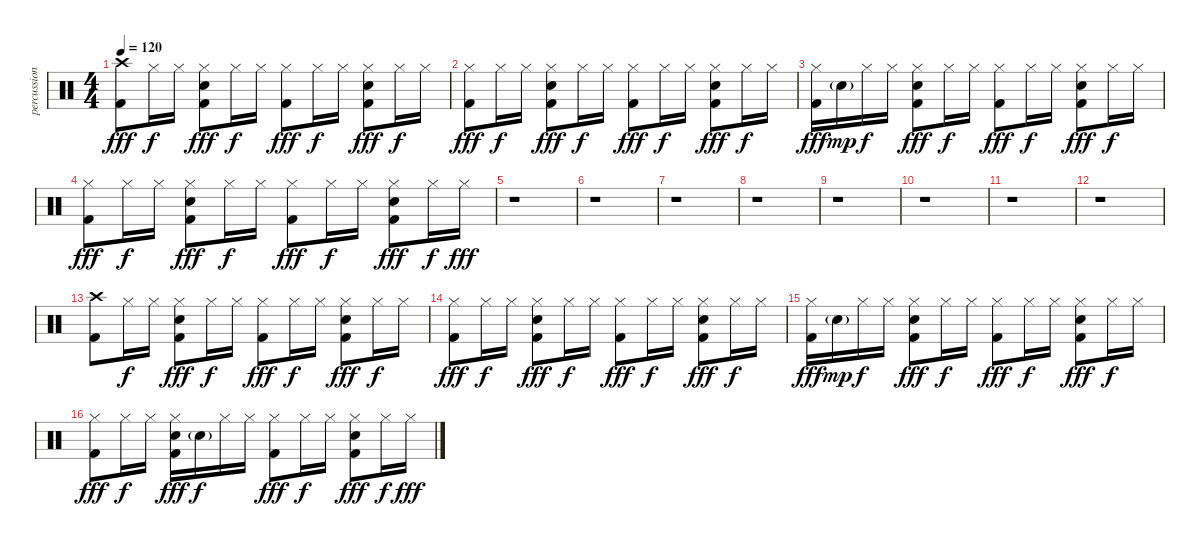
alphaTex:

\track ("percussion" "percussion") {instrument percussion}
\staff {score}
\articulation defaults
\ts (4 4)
\tempo 120
\clef neutral
\ks c
("Crash high (hit)" "Kick (hit) 2").8{dy fff} "Hi-Hat (closed)".16{dy f} "Hi-Hat (closed)".16 ("Snare (hit) 2" "Hi-Hat (closed)" "Kick (hit) 2").8{dy fff} "Hi-Hat (closed)".16{dy f} "Hi-Hat (closed)".16 ("Hi-Hat (closed)" "Kick (hit) 2").8{dy fff} "Hi-Hat (closed)".16{dy f} "Hi-Hat (closed)".16 ("Snare (hit) 2" "Hi-Hat (closed)" "Kick (hit) 2").8{dy fff} "Hi-Hat (closed)".16{dy f} "Hi-Hat (closed)".16 |
("Hi-Hat (closed)" "Kick (hit) 2").8{dy fff} "Hi-Hat (closed)".16{dy f} "Hi-Hat (closed)".16 ("Snare (hit) 2" "Hi-Hat (closed)" "Kick (hit) 2").8{dy fff} "Hi-Hat (closed)".16{dy f} "Hi-Hat (closed)".16 ("Hi-Hat (closed)" "Kick (hit) 2").8{dy fff} "Hi-Hat (closed)".16{dy f} "Hi-Hat (closed)".16 ("Snare (hit) 2" "Hi-Hat (closed)" "Kick (hit) 2").8{dy fff} "Hi-Hat (closed)".16{dy f} "Hi-Hat (closed)".16 |
("Hi-Hat (closed)" "Kick (hit) 2").16{dy fff} "Electric Snare (hit)"{g}.16{dy mp} "Hi-Hat (closed)".16{dy f} "Hi-Hat (closed)".16 ("Snare (hit) 2" "Hi-Hat (closed)" "Kick (hit) 2").8{dy fff} "Hi-Hat (closed)".16{dy f} "Hi-Hat (closed)".16 ("Hi-Hat (closed)" "Kick (hit) 2").8{dy fff} "Hi-Hat (closed)".16{dy f} "Hi-Hat (closed)".16 ("Snare (hit) 2" "Hi-Hat (closed)" "Kick (hit) 2").8{dy fff} "Hi-Hat (closed)".16{dy f} "Hi-Hat (closed)".16 |
("Hi-Hat (closed)" "Kick (hit) 2").8{dy fff} "Hi-Hat (closed)".16{dy f} "Hi-Hat (closed)".16 ("Snare (hit) 2" "Hi-Hat (closed)" "Kick (hit) 2").8{dy fff} "Hi-Hat (closed)".16{dy f} "Hi-Hat (closed)".16 ("Hi-Hat (closed)" "Kick (hit) 2").8{dy fff} "Hi-Hat (closed)".16{dy f} "Hi-Hat (closed)".16 ("Snare (hit) 2" "Hi-Hat (closed)" "Kick (hit) 2").8{dy fff} "Hi-Hat (closed)".16{dy f} "Hi-Hat (closed)".16{dy fff} |
r.1 |
r.1 |
r.1 |
r.1 |
r.1 |
r.1 |
r.1 |
r.1 |
("Crash high (hit)" "Kick (hit) 2").8 "Hi-Hat (closed)".16{dy f} "Hi-Hat (closed)".16 ("Snare (hit) 2" "Hi-Hat (closed)" "Kick (hit) 2").8{dy fff} "Hi-Hat (closed)".16{dy f} "Hi-Hat (closed)".16 ("Hi-Hat (closed)" "Kick (hit) 2").8{dy fff} "Hi-Hat (closed)".16{dy f} "Hi-Hat (closed)".16 ("Snare (hit) 2" "Hi-Hat (closed)" "Kick (hit) 2").8{dy fff} "Hi-Hat (closed)".16{dy f} "Hi-Hat (closed)".16 |
("Hi-Hat (closed)" "Kick (hit) 2").8{dy fff} "Hi-Hat (closed)".16{dy f} "Hi-Hat (closed)".16 ("Snare (hit) 2" "Hi-Hat (closed)" "Kick (hit) 2").8{dy fff} "Hi-Hat (closed)".16{dy f} "Hi-Hat (closed)".16 ("Hi-Hat (closed)" "Kick (hit) 2").8{dy fff} "Hi-Hat (closed)".16{dy f} "Hi-Hat (closed)".16 ("Snare (hit) 2" "Hi-Hat (closed)" "Kick (hit) 2").8{dy fff} "Hi-Hat (closed)".16{dy f} "Hi-Hat (closed)".16 |
("Hi-Hat (closed)" "Kick (hit) 2").16{dy fff} "Electric Snare (hit)"{g}.16{dy mp} "Hi-Hat (closed)".16{dy f} "Hi-Hat (closed)".16 ("Snare (hit) 2" "Hi-Hat (closed)" "Kick (hit) 2").8{dy fff} "Hi-Hat (closed)".16{dy f} "Hi-Hat (closed)".16 ("Hi-Hat (closed)" "Kick (hit) 2").8{dy fff} "Hi-Hat (closed)".16{dy f} "Hi-Hat (closed)".16 ("Snare (hit) 2" "Hi-Hat (closed)" "Kick (hit) 2").8{dy fff} "Hi-Hat (closed)".16{dy f} "Hi-Hat (closed)".16 |
("Hi-Hat (closed)" "Kick (hit) 2").8{dy fff} "Hi-Hat (closed)".16{dy f} "Hi-Hat (closed)".16 ("Snare (hit) 2" "Hi-Hat (closed)" "Kick (hit) 2").16{dy fff} "Electric Snare (hit)"{g}.16{dy f} "Hi-Hat (closed)".16 "Hi-Hat (closed)".16 ("Hi-Hat (closed)" "Kick (hit) 2").8{dy fff} "Hi-Hat (closed)".16{dy f} "Hi-Hat (closed)".16 ("Snare (hit) 2" "Hi-Hat (closed)" "Kick (hit) 2").8{dy fff} "Hi-Hat (closed)".16{dy f} "Hi-Hat (closed)".16{dy fff}
